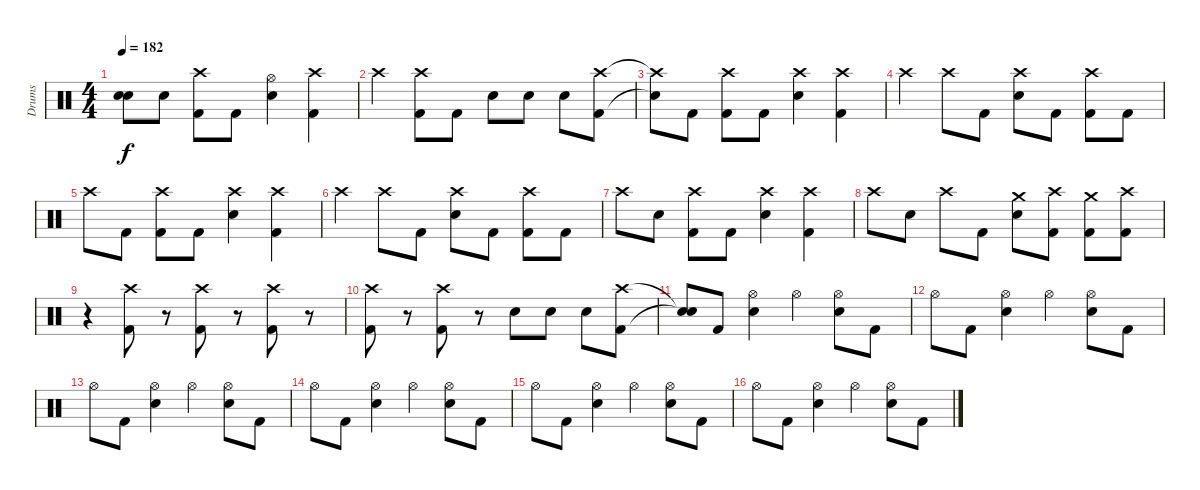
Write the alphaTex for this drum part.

\track ("Drums" "Drums") {instrument percussion}
\staff {score}
\articulation defaults
\ts (4 4)
\tempo 182
\clef neutral
\ks c
("Snare (hit)"{t} "Snare (hit)"{t}).8{dy f} "Electric Snare (hit)".8 ("Crash high (hit)" "Kick (hit) 2").8 "Kick (hit) 2".8 ("Hi-Hat (open)" "Electric Snare (hit)").4 ("Crash high (hit)" "Kick (hit) 2").4 |
"Crash high (hit)".4 ("Crash high (hit)" "Kick (hit) 2").8 "Kick (hit) 2".8 "Electric Snare (hit)".8 "Electric Snare (hit)".8 "Electric Snare (hit)".8 ("Crash high (hit)" "Kick (hit) 2").8 |
("Crash high (hit)"{t} "Snare (hit)"{t}).8 "Kick (hit) 2".8 ("Crash high (hit)" "Kick (hit) 2").8 "Kick (hit) 2".8 ("Crash high (hit)" "Electric Snare (hit)").4 ("Crash high (hit)" "Kick (hit) 2").4 |
"Crash high (hit)".4 "Crash high (hit)".8 "Kick (hit) 2".8 ("Crash high (hit)" "Electric Snare (hit)").8 "Kick (hit) 2".8 ("Crash high (hit)" "Kick (hit) 2").8 "Kick (hit) 2".8 |
"Crash high (hit)".8 "Kick (hit) 2".8 ("Crash high (hit)" "Kick (hit) 2").8 "Kick (hit) 2".8 ("Crash high (hit)" "Electric Snare (hit)").4 ("Crash high (hit)" "Kick (hit) 2").4 |
"Crash high (hit)".4 "Crash high (hit)".8 "Kick (hit) 2".8 ("Crash high (hit)" "Electric Snare (hit)").8 "Kick (hit) 2".8 ("Crash high (hit)" "Kick (hit) 2").8 "Kick (hit) 2".8 |
"Crash high (hit)".8 "Electric Snare (hit)".8 ("Crash high (hit)" "Kick (hit) 2").8 "Kick (hit) 2".8 ("Crash high (hit)" "Electric Snare (hit)").4 ("Crash high (hit)" "Kick (hit) 2").4 |
"Crash high (hit)".8 "Electric Snare (hit)".8 "Crash high (hit)".8 "Kick (hit) 2".8 ("Crash medium (hit)" "Electric Snare (hit)").8 ("Crash high (hit)" "Kick (hit) 2").8 ("Crash medium (hit)" "Kick (hit) 2").8 ("Crash high (hit)" "Kick (hit) 2").8 |
r.4{volume 0} ("Crash high (hit)" "Kick (hit) 2").8{volume 15} r.8{volume 0} ("Crash high (hit)" "Kick (hit) 2").8{volume 15} r.8{volume 0} ("Crash high (hit)" "Kick (hit) 2").8{volume 15} r.8{volume 0} |
("Crash high (hit)" "Kick (hit) 2").8{volume 15} r.8{volume 0} ("Crash high (hit)" "Kick (hit) 2").8{volume 15} r.8{volume 0} "Electric Snare (hit)".8{volume 15} "Electric Snare (hit)".8 "Electric Snare (hit)".8 ("Crash high (hit)" "Kick (hit) 2").8 |
("Snare (hit)"{t} "Snare (hit)"{t}).8 "Kick (hit) 2".8 ("Hi-Hat (open)" "Electric Snare (hit)").4 "Hi-Hat (open)".4 ("Hi-Hat (open)" "Electric Snare (hit)").8 "Kick (hit) 2".8 |
"Hi-Hat (open)".8 "Kick (hit) 2".8 ("Hi-Hat (open)" "Electric Snare (hit)").4 "Hi-Hat (open)".4 ("Hi-Hat (open)" "Electric Snare (hit)").8 "Kick (hit) 2".8 |
"Hi-Hat (open)".8 "Kick (hit) 2".8 ("Hi-Hat (open)" "Electric Snare (hit)").4 "Hi-Hat (open)".4 ("Hi-Hat (open)" "Electric Snare (hit)").8 "Kick (hit) 2".8 |
"Hi-Hat (open)".8 "Kick (hit) 2".8 ("Hi-Hat (open)" "Electric Snare (hit)").4 "Hi-Hat (open)".4 ("Hi-Hat (open)" "Electric Snare (hit)").8 "Kick (hit) 2".8 |
"Hi-Hat (open)".8 "Kick (hit) 2".8 ("Hi-Hat (open)" "Electric Snare (hit)").4 "Hi-Hat (open)".4 ("Hi-Hat (open)" "Electric Snare (hit)").8 "Kick (hit) 2".8 |
"Hi-Hat (open)".8 "Kick (hit) 2".8 ("Hi-Hat (open)" "Electric Snare (hit)").4 "Hi-Hat (open)".4 ("Hi-Hat (open)" "Electric Snare (hit)").8 "Kick (hit) 2".8
